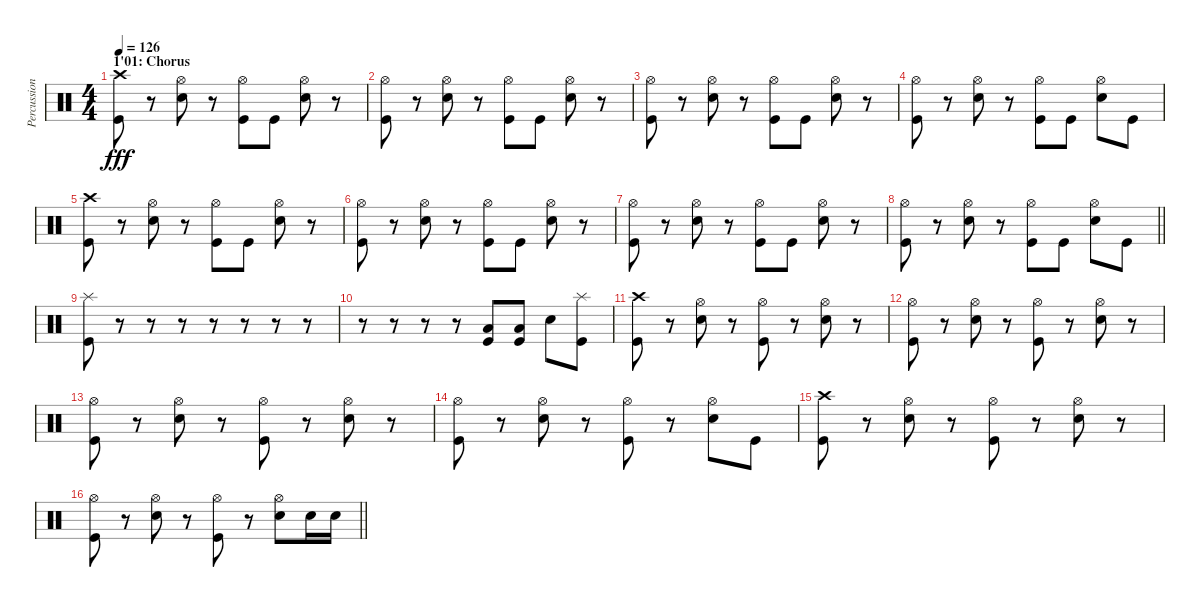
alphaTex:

\track ("Percussions" "Percussion") {instrument percussion}
\staff {score}
\articulation defaults
\ts (4 4)
\section ("" "1'01: Chorus")
\tempo 126
\clef neutral
\ks c
("Crash high (hit)" "Kick (hit)").8{dy fff} r.8 ("Hi-Hat (open)" "Electric Snare (hit)").8 r.8 ("Hi-Hat (open)" "Kick (hit)").8 "Kick (hit)".8 ("Hi-Hat (open)" "Electric Snare (hit)").8 r.8 |
("Hi-Hat (open)" "Kick (hit)").8 r.8 ("Hi-Hat (open)" "Electric Snare (hit)").8 r.8 ("Hi-Hat (open)" "Kick (hit)").8 "Kick (hit)".8 ("Hi-Hat (open)" "Electric Snare (hit)").8 r.8 |
("Hi-Hat (open)" "Kick (hit)").8 r.8 ("Hi-Hat (open)" "Electric Snare (hit)").8 r.8 ("Hi-Hat (open)" "Kick (hit)").8 "Kick (hit)".8 ("Hi-Hat (open)" "Electric Snare (hit)").8 r.8 |
("Hi-Hat (open)" "Kick (hit)").8 r.8 ("Hi-Hat (open)" "Electric Snare (hit)").8 r.8 ("Hi-Hat (open)" "Kick (hit)").8 "Kick (hit)".8 ("Hi-Hat (open)" "Electric Snare (hit)").8 "Kick (hit)".8 |
("Crash high (hit)" "Kick (hit)").8 r.8 ("Hi-Hat (open)" "Electric Snare (hit)").8 r.8 ("Hi-Hat (open)" "Kick (hit)").8 "Kick (hit)".8 ("Hi-Hat (open)" "Electric Snare (hit)").8 r.8 |
("Hi-Hat (open)" "Kick (hit)").8 r.8 ("Hi-Hat (open)" "Electric Snare (hit)").8 r.8 ("Hi-Hat (open)" "Kick (hit)").8 "Kick (hit)".8 ("Hi-Hat (open)" "Electric Snare (hit)").8 r.8 |
("Hi-Hat (open)" "Kick (hit)").8 r.8 ("Hi-Hat (open)" "Electric Snare (hit)").8 r.8 ("Hi-Hat (open)" "Kick (hit)").8 "Kick (hit)".8 ("Hi-Hat (open)" "Electric Snare (hit)").8 r.8 |
\barLineRight lightlight
("Hi-Hat (open)" "Kick (hit)").8 r.8 ("Hi-Hat (open)" "Electric Snare (hit)").8 r.8 ("Hi-Hat (open)" "Kick (hit)").8 "Kick (hit)".8 ("Hi-Hat (open)" "Electric Snare (hit)").8 "Kick (hit)".8 |
("Splash (hit)" "Kick (hit)").8 r.8 r.8 r.8 r.8 r.8 r.8 r.8 |
r.8 r.8 r.8 r.8 ("Low Floor Tom (hit)" "Kick (hit)").8 ("Low Floor Tom (hit)" "Kick (hit)").8 "Electric Snare (hit)".8 ("Splash (hit)" "Kick (hit)").8 |
("Crash high (hit)" "Kick (hit)").8 r.8 ("Hi-Hat (open)" "Electric Snare (hit)").8 r.8 ("Hi-Hat (open)" "Kick (hit)").8 r.8 ("Hi-Hat (open)" "Electric Snare (hit)").8 r.8 |
("Hi-Hat (open)" "Kick (hit)").8 r.8 ("Hi-Hat (open)" "Electric Snare (hit)").8 r.8 ("Hi-Hat (open)" "Kick (hit)").8 r.8 ("Hi-Hat (open)" "Electric Snare (hit)").8 r.8 |
("Hi-Hat (open)" "Kick (hit)").8 r.8 ("Hi-Hat (open)" "Electric Snare (hit)").8 r.8 ("Hi-Hat (open)" "Kick (hit)").8 r.8 ("Hi-Hat (open)" "Electric Snare (hit)").8 r.8 |
("Hi-Hat (open)" "Kick (hit)").8 r.8 ("Hi-Hat (open)" "Electric Snare (hit)").8 r.8 ("Hi-Hat (open)" "Kick (hit)").8 r.8 ("Hi-Hat (open)" "Electric Snare (hit)").8 "Kick (hit)".8 |
("Crash high (hit)" "Kick (hit)").8 r.8 ("Hi-Hat (open)" "Electric Snare (hit)").8 r.8 ("Hi-Hat (open)" "Kick (hit)").8 r.8 ("Hi-Hat (open)" "Electric Snare (hit)").8 r.8 |
\barLineRight lightlight
("Hi-Hat (open)" "Kick (hit)").8 r.8 ("Hi-Hat (open)" "Electric Snare (hit)").8 r.8 ("Hi-Hat (open)" "Kick (hit)").8 r.8 ("Hi-Hat (open)" "Electric Snare (hit)").8 "Electric Snare (hit)".16 "Electric Snare (hit)".16
